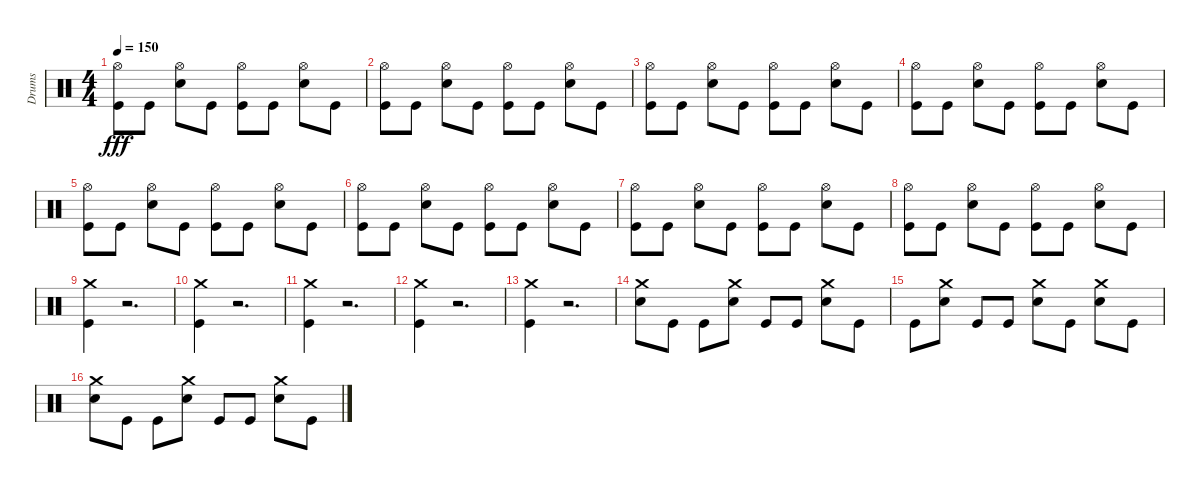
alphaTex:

\track ("Drums" "Drums") {instrument percussion}
\staff {score}
\articulation defaults
\ts (4 4)
\tempo 150
\clef neutral
\ks c
("Hi-Hat (open)" "Kick (hit)").8{dy fff} "Kick (hit)".8 ("Hi-Hat (open)" "Snare (hit) 2").8 "Kick (hit)".8 ("Hi-Hat (open)" "Kick (hit)").8 "Kick (hit)".8 ("Hi-Hat (open)" "Snare (hit) 2").8 "Kick (hit)".8 |
("Hi-Hat (open)" "Kick (hit)").8 "Kick (hit)".8 ("Hi-Hat (open)" "Snare (hit) 2").8 "Kick (hit)".8 ("Hi-Hat (open)" "Kick (hit)").8 "Kick (hit)".8 ("Hi-Hat (open)" "Snare (hit) 2").8 "Kick (hit)".8 |
("Hi-Hat (open)" "Kick (hit)").8 "Kick (hit)".8 ("Hi-Hat (open)" "Snare (hit) 2").8 "Kick (hit)".8 ("Hi-Hat (open)" "Kick (hit)").8 "Kick (hit)".8 ("Hi-Hat (open)" "Snare (hit) 2").8 "Kick (hit)".8 |
("Hi-Hat (open)" "Kick (hit)").8 "Kick (hit)".8 ("Hi-Hat (open)" "Snare (hit) 2").8 "Kick (hit)".8 ("Hi-Hat (open)" "Kick (hit)").8 "Kick (hit)".8 ("Hi-Hat (open)" "Snare (hit) 2").8 "Kick (hit)".8 |
("Hi-Hat (open)" "Kick (hit)").8 "Kick (hit)".8 ("Hi-Hat (open)" "Snare (hit) 2").8 "Kick (hit)".8 ("Hi-Hat (open)" "Kick (hit)").8 "Kick (hit)".8 ("Hi-Hat (open)" "Snare (hit) 2").8 "Kick (hit)".8 |
("Hi-Hat (open)" "Kick (hit)").8 "Kick (hit)".8 ("Hi-Hat (open)" "Snare (hit) 2").8 "Kick (hit)".8 ("Hi-Hat (open)" "Kick (hit)").8 "Kick (hit)".8 ("Hi-Hat (open)" "Snare (hit) 2").8 "Kick (hit)".8 |
("Hi-Hat (open)" "Kick (hit)").8 "Kick (hit)".8 ("Hi-Hat (open)" "Snare (hit) 2").8 "Kick (hit)".8 ("Hi-Hat (open)" "Kick (hit)").8 "Kick (hit)".8 ("Hi-Hat (open)" "Snare (hit) 2").8 "Kick (hit)".8 |
("Hi-Hat (open)" "Kick (hit)").8 "Kick (hit)".8 ("Hi-Hat (open)" "Snare (hit) 2").8 "Kick (hit)".8 ("Hi-Hat (open)" "Kick (hit)").8 "Kick (hit)".8 ("Hi-Hat (open)" "Snare (hit) 2").8 "Kick (hit)".8 |
("Kick (hit)" "Crash medium (hit)").4 r.2{d} |
("Kick (hit)" "Crash medium (hit)").4 r.2{d} |
("Kick (hit)" "Crash medium (hit)").4 r.2{d} |
("Kick (hit)" "Crash medium (hit)").4 r.2{d} |
("Kick (hit)" "Crash medium (hit)").4 r.2{d} |
("Crash medium (hit)" "Snare (hit) 2").8 "Kick (hit)".8 "Kick (hit)".8 ("Crash medium (hit)" "Snare (hit) 2").8 "Kick (hit)".8 "Kick (hit)".8 ("Crash medium (hit)" "Snare (hit) 2").8 "Kick (hit)".8 |
"Kick (hit)".8 ("Crash medium (hit)" "Snare (hit) 2").8 "Kick (hit)".8 "Kick (hit)".8 ("Crash medium (hit)" "Snare (hit) 2").8 "Kick (hit)".8 ("Crash medium (hit)" "Snare (hit) 2").8 "Kick (hit)".8 |
("Crash medium (hit)" "Snare (hit) 2").8 "Kick (hit)".8 "Kick (hit)".8 ("Crash medium (hit)" "Snare (hit) 2").8 "Kick (hit)".8 "Kick (hit)".8 ("Crash medium (hit)" "Snare (hit) 2").8 "Kick (hit)".8
